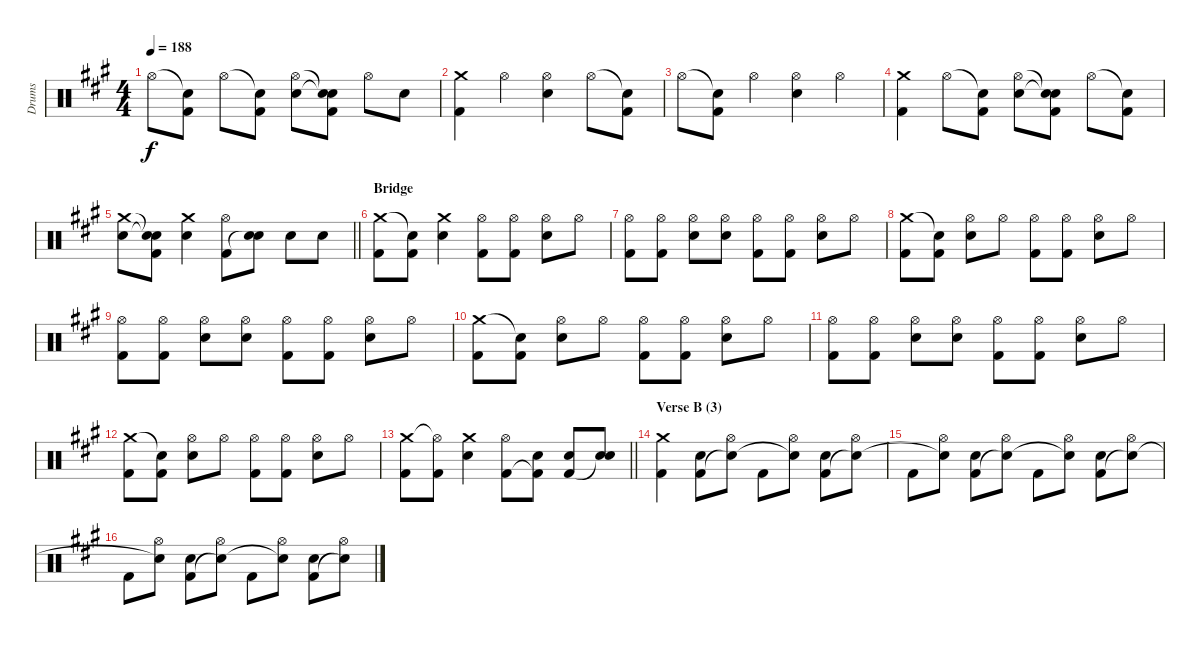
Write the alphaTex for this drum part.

\track ("Drums" "Drums") {instrument percussion}
\staff {score}
\articulation defaults
\ts (4 4)
\tempo 188
\clef neutral
\ks a "Hi-Hat (open)".8{dy f}
("Snare (hit)"{t} "Kick (hit) 2").8 "Hi-Hat (open)".8 ("Snare (hit)"{t} "Kick (hit) 2").8 ("Hi-Hat (open)" "Electric Snare (hit)").8 ("Snare (hit)"{t} "Electric Snare (hit)"{t} "Kick (hit) 2").8 "Hi-Hat (open)".8 "Electric Snare (hit)".8 |
("Crash medium (hit)" "Kick (hit) 2").4 "Hi-Hat (open)".4 ("Hi-Hat (open)" "Electric Snare (hit)").4 "Hi-Hat (open)".8 ("Snare (hit)"{t} "Kick (hit) 2").8 |
"Hi-Hat (open)".8 ("Snare (hit)"{t} "Kick (hit) 2").8 "Hi-Hat (open)".4 ("Hi-Hat (open)" "Electric Snare (hit)").4 "Hi-Hat (open)".4 |
("Crash medium (hit)" "Kick (hit) 2").4 "Hi-Hat (open)".8 ("Snare (hit)"{t} "Kick (hit) 2").8 ("Hi-Hat (open)" "Electric Snare (hit)").8 ("Snare (hit)"{t} "Snare (hit)"{t} "Kick (hit) 2").8 "Hi-Hat (open)".8 ("Snare (hit)"{t} "Kick (hit) 2").8 |
\barLineRight lightlight
("Crash medium (hit)" "Electric Snare (hit)").8 ("Snare (hit)"{t} "Snare (hit)"{t} "Kick (hit) 2").8 ("Crash medium (hit)" "Electric Snare (hit)").4 ("Hi-Hat (open)" "Kick (hit) 2").8 ("Electric Snare (hit)" "Snare (hit)"{t}).8 "Electric Snare (hit)".8 "Electric Snare (hit)".8 |
\section ("" "Bridge")
("Crash medium (hit)" "Kick (hit) 2").8 ("Snare (hit)"{t} "Kick (hit) 2").8 ("Crash medium (hit)" "Electric Snare (hit)").4 ("Hi-Hat (open)" "Kick (hit) 2").8 ("Hi-Hat (open)" "Kick (hit) 2").8 ("Hi-Hat (open)" "Electric Snare (hit)").8 "Hi-Hat (open)".8 |
("Hi-Hat (open)" "Kick (hit) 2").8 ("Hi-Hat (open)" "Kick (hit) 2").8 ("Hi-Hat (open)" "Electric Snare (hit)").8 ("Hi-Hat (open)" "Electric Snare (hit)").8 ("Hi-Hat (open)" "Kick (hit) 2").8 ("Hi-Hat (open)" "Kick (hit) 2").8 ("Hi-Hat (open)" "Electric Snare (hit)").8 "Hi-Hat (open)".8 |
("Crash medium (hit)" "Kick (hit) 2").8 ("Snare (hit)"{t} "Kick (hit) 2").8 ("Hi-Hat (open)" "Electric Snare (hit)").8 "Hi-Hat (open)".8 ("Hi-Hat (open)" "Kick (hit) 2").8 ("Hi-Hat (open)" "Kick (hit) 2").8 ("Hi-Hat (open)" "Electric Snare (hit)").8 "Hi-Hat (open)".8 |
("Hi-Hat (open)" "Kick (hit) 2").8 ("Hi-Hat (open)" "Kick (hit) 2").8 ("Hi-Hat (open)" "Electric Snare (hit)").8 ("Hi-Hat (open)" "Electric Snare (hit)").8 ("Hi-Hat (open)" "Kick (hit) 2").8 ("Hi-Hat (open)" "Kick (hit) 2").8 ("Hi-Hat (open)" "Electric Snare (hit)").8 "Hi-Hat (open)".8 |
("Crash medium (hit)" "Kick (hit) 2").8 ("Snare (hit)"{t} "Kick (hit) 2").8 ("Hi-Hat (open)" "Electric Snare (hit)").8 "Hi-Hat (open)".8 ("Hi-Hat (open)" "Kick (hit) 2").8 ("Hi-Hat (open)" "Kick (hit) 2").8 ("Hi-Hat (open)" "Electric Snare (hit)").8 "Hi-Hat (open)".8 |
("Hi-Hat (open)" "Kick (hit) 2").8 ("Hi-Hat (open)" "Kick (hit) 2").8 ("Hi-Hat (open)" "Electric Snare (hit)").8 ("Hi-Hat (open)" "Electric Snare (hit)").8 ("Hi-Hat (open)" "Kick (hit) 2").8 ("Hi-Hat (open)" "Kick (hit) 2").8 ("Hi-Hat (open)" "Electric Snare (hit)").8 "Hi-Hat (open)".8 |
("Crash medium (hit)" "Kick (hit) 2").8 ("Snare (hit)"{t} "Kick (hit) 2").8 ("Hi-Hat (open)" "Electric Snare (hit)").8 "Hi-Hat (open)".8 ("Hi-Hat (open)" "Kick (hit) 2").8 ("Hi-Hat (open)" "Kick (hit) 2").8 ("Hi-Hat (open)" "Electric Snare (hit)").8 "Hi-Hat (open)".8 |
\barLineRight lightlight
("Crash medium (hit)" "Kick (hit) 2").8 ("Hi-Hat (open)"{t} "Kick (hit) 2").8 ("Crash medium (hit)" "Electric Snare (hit)").4 ("Hi-Hat (open)" "Kick (hit) 2").8 ("Electric Snare (hit)" "Kick (hit) 2"{t}).8 ("Electric Snare (hit)" "Kick (hit) 2").8 ("Electric Snare (hit)" "Snare (hit)"{t}).8 |
\section ("" "Verse B (3)")
("Crash medium (hit)" "Kick (hit) 2").4 ("Electric Snare (hit)" "Kick (hit) 2").8 ("Hi-Hat (open)" "Snare (hit)"{t}).8 "Kick (hit) 2".8 ("Hi-Hat (open)" "Snare (hit)"{t}).8 ("Electric Snare (hit)" "Kick (hit) 2").8 ("Hi-Hat (open)" "Snare (hit)"{t}).8 |
"Kick (hit) 2".8 ("Hi-Hat (open)" "Snare (hit)"{t}).8 ("Electric Snare (hit)" "Kick (hit) 2").8 ("Hi-Hat (open)" "Snare (hit)"{t}).8 "Kick (hit) 2".8 ("Hi-Hat (open)" "Snare (hit)"{t}).8 ("Electric Snare (hit)" "Kick (hit) 2").8 ("Hi-Hat (open)" "Snare (hit)"{t}).8 |
"Kick (hit) 2".8 ("Hi-Hat (open)" "Snare (hit)"{t}).8 ("Electric Snare (hit)" "Kick (hit) 2").8 ("Hi-Hat (open)" "Snare (hit)"{t}).8 "Kick (hit) 2".8 ("Hi-Hat (open)" "Snare (hit)"{t}).8 ("Electric Snare (hit)" "Kick (hit) 2").8 ("Hi-Hat (open)" "Snare (hit)"{t}).8
